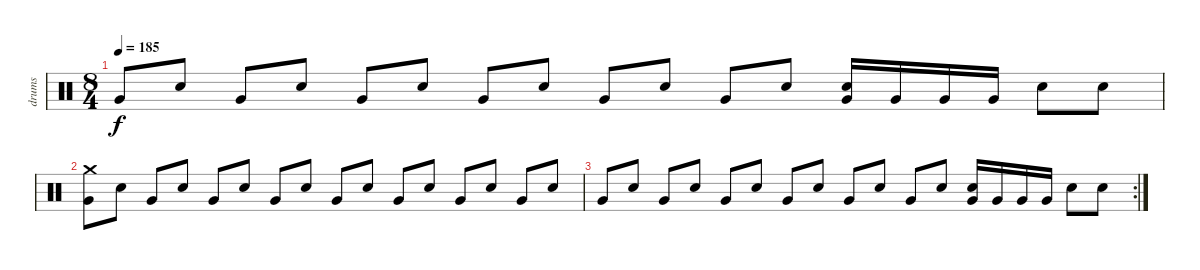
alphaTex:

\track ("drums" "drums") {instrument percussion}
\staff {score}
\articulation defaults
\ts (8 4)
\tempo 185
\clef neutral
\ks c "Very Low Tom (hit)".8{dy f} "Electric Snare (hit)".8 "Very Low Tom (hit)".8 "Electric Snare (hit)".8 "Very Low Tom (hit)".8 "Electric Snare (hit)".8 "Very Low Tom (hit)".8 "Electric Snare (hit)".8 "Very Low Tom (hit)".8 "Electric Snare (hit)".8 "Very Low Tom (hit)".8 "Electric Snare (hit)".8
("Very Low Tom (hit)" "Electric Snare (hit)").16 "Very Low Tom (hit)".16 "Very Low Tom (hit)".16 "Very Low Tom (hit)".16 "Electric Snare (hit)".8 "Electric Snare (hit)".8 |
("Crash medium (hit)" "Very Low Tom (hit)").8 "Electric Snare (hit)".8 "Very Low Tom (hit)".8 "Electric Snare (hit)".8 "Very Low Tom (hit)".8 "Electric Snare (hit)".8 "Very Low Tom (hit)".8 "Electric Snare (hit)".8 "Very Low Tom (hit)".8 "Electric Snare (hit)".8 "Very Low Tom (hit)".8 "Electric Snare (hit)".8 "Very Low Tom (hit)".8 "Electric Snare (hit)".8 "Very Low Tom (hit)".8 "Electric Snare (hit)".8 |
\rc 2 "Very Low Tom (hit)".8 "Electric Snare (hit)".8 "Very Low Tom (hit)".8 "Electric Snare (hit)".8 "Very Low Tom (hit)".8 "Electric Snare (hit)".8 "Very Low Tom (hit)".8 "Electric Snare (hit)".8 "Very Low Tom (hit)".8 "Electric Snare (hit)".8 "Very Low Tom (hit)".8 "Electric Snare (hit)".8
("Very Low Tom (hit)" "Electric Snare (hit)").16 "Very Low Tom (hit)".16 "Very Low Tom (hit)".16 "Very Low Tom (hit)".16 "Electric Snare (hit)".8 "Electric Snare (hit)".8
